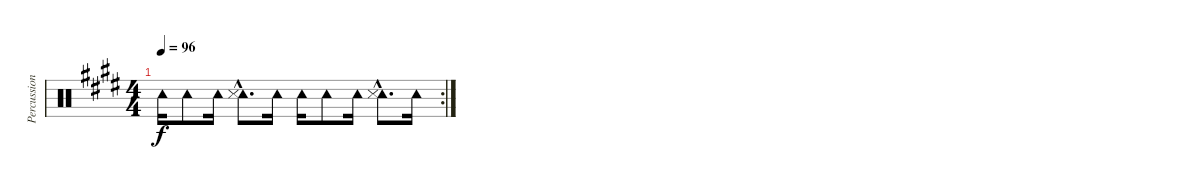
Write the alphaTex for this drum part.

\track ("Percussions" "Percussion") {instrument percussion}
\staff {score}
\articulation defaults
\rc 2
\ts (4 4)
\tempo 96
\clef neutral
\ks e "Tambourine (hit)".16{dy f} "Tambourine (hit)".8 "Tambourine (hit)".16
("Tambourine (hit)"{hac} "Snare (side stick) 3"{hac}).8{d} "Tambourine (hit)".16 "Tambourine (hit)".16 "Tambourine (hit)".8 "Tambourine (hit)".16 ("Tambourine (hit)"{hac} "Snare (side stick) 3"{hac}).8{d} "Tambourine (hit)".16
